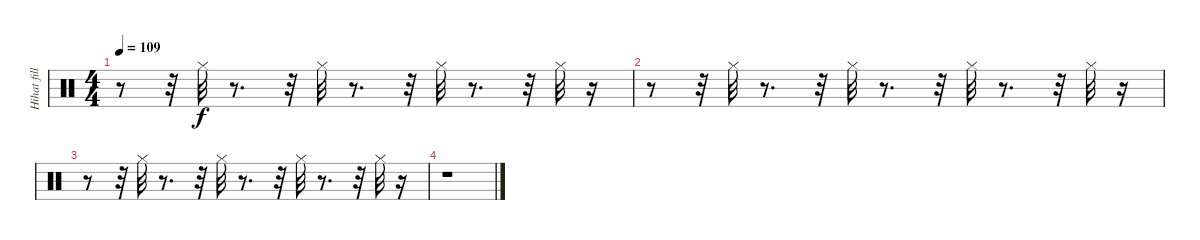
\track ("Hihat fills     " "Hihat fill") {instrument percussion}
\staff {score}
\articulation defaults
\ts (4 4)
\tempo 109
\clef neutral
\ks c
r.8{dy f} r.32 "Hi-Hat (closed)".32 r.8{d} r.32 "Hi-Hat (closed)".32 r.8{d} r.32 "Hi-Hat (closed)".32 r.8{d} r.32 "Hi-Hat (closed)".32 r.16 |
r.8 r.32 "Hi-Hat (closed)".32 r.8{d} r.32 "Hi-Hat (closed)".32 r.8{d} r.32 "Hi-Hat (closed)".32 r.8{d} r.32 "Hi-Hat (closed)".32 r.16 |
r.8 r.32 "Hi-Hat (closed)".32 r.8{d} r.32 "Hi-Hat (closed)".32 r.8{d} r.32 "Hi-Hat (closed)".32 r.8{d} r.32 "Hi-Hat (closed)".32 r.16 |
r.1
